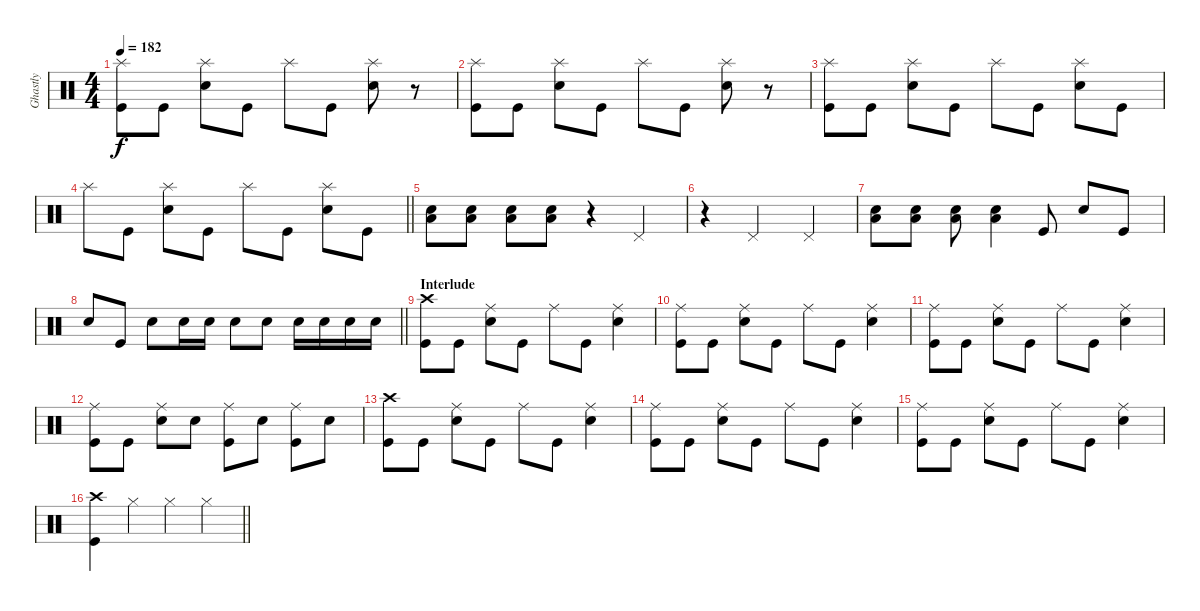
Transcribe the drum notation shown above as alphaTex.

\track ("Ghastly" "Ghastly") {instrument percussion}
\staff {score}
\articulation defaults
\ts (4 4)
\tempo 182
\clef neutral
\ks c
("Splash (hit)" "Kick (hit)").8{dy f} "Kick (hit)".8 ("Splash (hit)" "Electric Snare (hit)").8 "Kick (hit)".8 "Splash (hit)".8 "Kick (hit)".8 ("Splash (hit)" "Electric Snare (hit)").8 r.8 |
("Splash (hit)" "Kick (hit)").8 "Kick (hit)".8 ("Splash (hit)" "Electric Snare (hit)").8 "Kick (hit)".8 "Splash (hit)".8 "Kick (hit)".8 ("Splash (hit)" "Electric Snare (hit)").8 r.8 |
("Splash (hit)" "Kick (hit)").8 "Kick (hit)".8 ("Splash (hit)" "Electric Snare (hit)").8 "Kick (hit)".8 "Splash (hit)".8 "Kick (hit)".8 ("Splash (hit)" "Electric Snare (hit)").8 "Kick (hit)".8 |
\barLineRight lightlight "Splash (hit)".8 "Kick (hit)".8
("Splash (hit)" "Electric Snare (hit)").8 "Kick (hit)".8 "Splash (hit)".8 "Kick (hit)".8 ("Splash (hit)" "Electric Snare (hit)").8 "Kick (hit)".8 |
("Low Tom (hit)" "Electric Snare (hit)").8 ("Low Tom (hit)" "Electric Snare (hit)").8 ("Low Tom (hit)" "Electric Snare (hit)").8 ("Low Tom (hit)" "Electric Snare (hit)").8 r.4 "Pedal Hi-Hat (hit)".4 |
r.4 "Pedal Hi-Hat (hit)".2 "Pedal Hi-Hat (hit)".4 |
("Low Tom (hit)" "Electric Snare (hit)").8 ("Low Tom (hit)" "Electric Snare (hit)").8 ("Low Tom (hit)" "Electric Snare (hit)").8 ("Low Tom (hit)" "Electric Snare (hit)").4 "Kick (hit)".8 "Electric Snare (hit)".8 "Kick (hit)".8 |
\barLineRight lightlight "Electric Snare (hit)".8 "Kick (hit)".8 "Electric Snare (hit)".8 "Electric Snare (hit)".16 "Electric Snare (hit)".16 "Electric Snare (hit)".8 "Electric Snare (hit)".8 "Electric Snare (hit)".16 "Electric Snare (hit)".16 "Electric Snare (hit)".16 "Electric Snare (hit)".16
|
\section ("" "Interlude")
("Crash high (hit)" "Kick (hit)").8 "Kick (hit)".8 ("Ride (middle)" "Electric Snare (hit)").8 "Kick (hit)".8 "Ride (middle)".8 "Kick (hit)".8 ("Ride (middle)" "Electric Snare (hit)").4 |
("Ride (middle)" "Kick (hit)").8 "Kick (hit)".8 ("Ride (middle)" "Electric Snare (hit)").8 "Kick (hit)".8 "Ride (middle)".8 "Kick (hit)".8 ("Ride (middle)" "Electric Snare (hit)").4 |
("Ride (middle)" "Kick (hit)").8 "Kick (hit)".8 ("Ride (middle)" "Electric Snare (hit)").8 "Kick (hit)".8 "Ride (middle)".8 "Kick (hit)".8 ("Ride (middle)" "Electric Snare (hit)").4 |
("Ride (middle)" "Kick (hit)").8 "Kick (hit)".8 ("Ride (middle)" "Electric Snare (hit)").8 "Electric Snare (hit)".8 ("Ride (middle)" "Kick (hit)").8 "Electric Snare (hit)".8 ("Ride (middle)" "Kick (hit)").8 "Electric Snare (hit)".8 |
("Crash high (hit)" "Kick (hit)").8 "Kick (hit)".8 ("Ride (middle)" "Electric Snare (hit)").8 "Kick (hit)".8 "Ride (middle)".8 "Kick (hit)".8 ("Ride (middle)" "Electric Snare (hit)").4 |
("Ride (middle)" "Kick (hit)").8 "Kick (hit)".8 ("Ride (middle)" "Electric Snare (hit)").8 "Kick (hit)".8 "Ride (middle)".8 "Kick (hit)".8 ("Ride (middle)" "Electric Snare (hit)").4 |
("Ride (middle)" "Kick (hit)").8 "Kick (hit)".8 ("Ride (middle)" "Electric Snare (hit)").8 "Kick (hit)".8 "Ride (middle)".8 "Kick (hit)".8 ("Ride (middle)" "Electric Snare (hit)").4 |
\barLineRight lightlight
("Crash high (hit)" "Kick (hit)").4 "Hi-Hat (closed)".4 "Hi-Hat (closed)".4 "Hi-Hat (closed)".4
